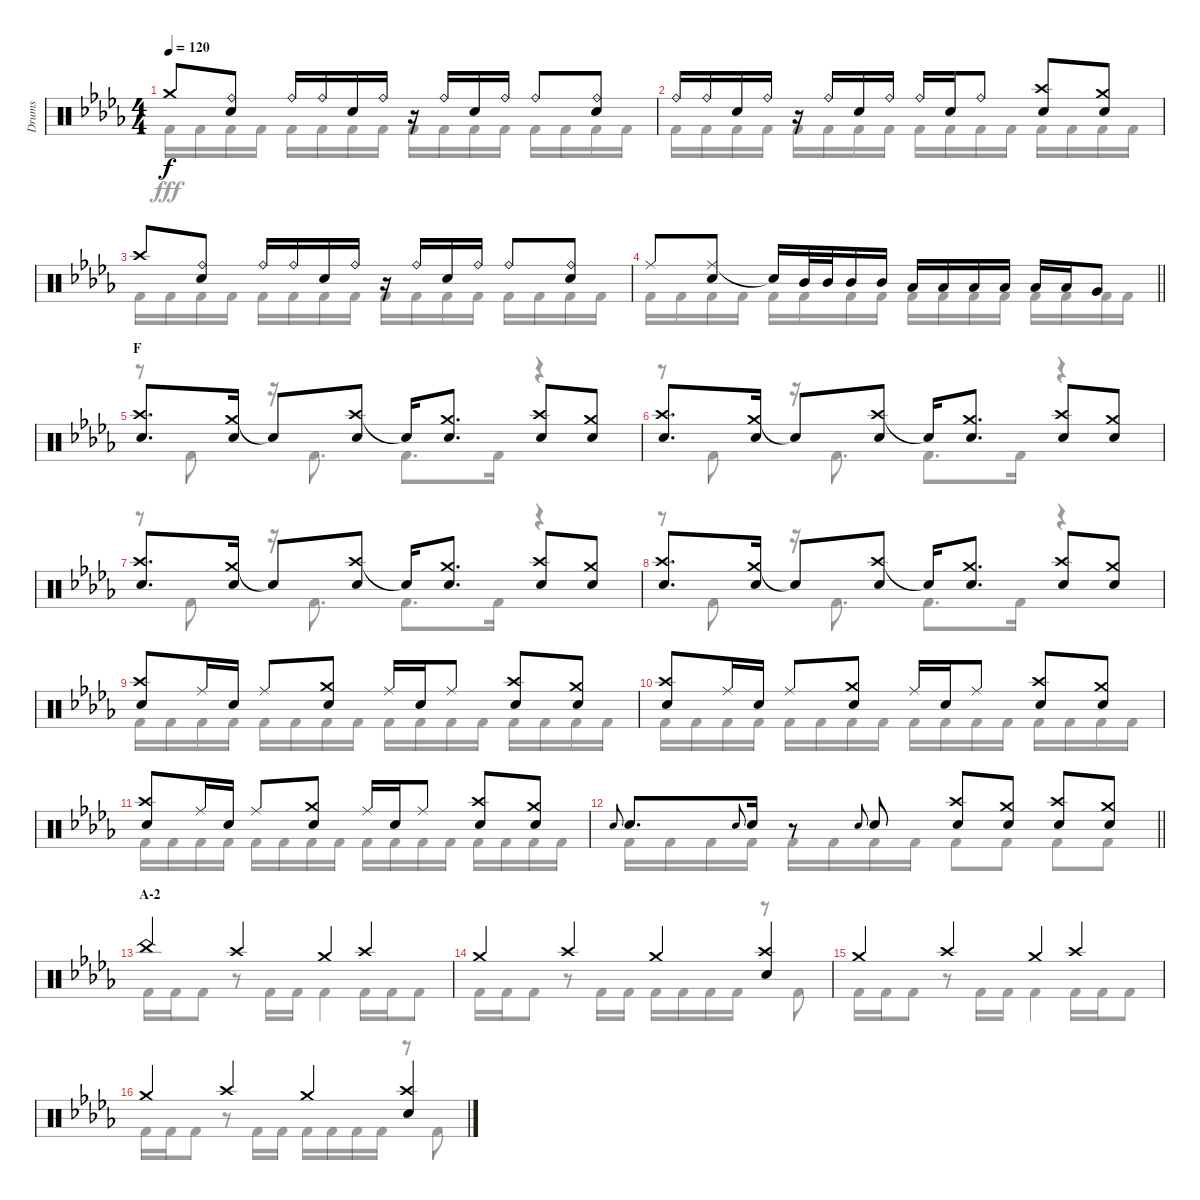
\track ("Drums" "Drums") {instrument percussion}
\staff {score}
\articulation defaults
\voice
\ts (4 4)
\tempo 120
\clef neutral
\ks db "Crash medium (hit)".8{dy f}
("Ride (bell)" "Snare (hit) 2").8 "Ride (bell)".16 "Ride (bell)".16 "Snare (hit) 2".16 "Ride (bell)".16 r.16 "Ride (bell)".16 "Snare (hit) 2".16 "Ride (bell)".16 "Ride (bell)".8 ("Ride (bell)" "Snare (hit) 2").8 |
"Ride (bell)".16 "Ride (bell)".16 "Snare (hit) 2".16 "Ride (bell)".16 r.16 "Ride (bell)".16 "Snare (hit) 2".16 "Ride (bell)".16 "Ride (bell)".16 "Snare (hit) 2".16 "Ride (bell)".8 ("Crash high (hit)" "Snare (hit) 2").8 ("Crash medium (hit)" "Snare (hit) 2").8 |
"Crash high (hit)".8 ("Ride (bell)" "Snare (hit) 2").8 "Ride (bell)".16 "Ride (bell)".16 "Snare (hit) 2".16 "Ride (bell)".16 r.16 "Ride (bell)".16 "Snare (hit) 2".16 "Ride (bell)".16 "Ride (bell)".8 ("Ride (bell)" "Snare (hit) 2").8 |
\barLineRight lightlight "Ride (middle)".8
("Ride (middle)" "Snare (hit) 2").8 "Snare (hit)"{t}.16 "Mid Tom (hit)".32 "Mid Tom (hit)".32 "Mid Tom (hit)".16 "Mid Tom (hit)".16 "Low Tom (hit)".16 "Low Tom (hit)".16 "Low Tom (hit)".16 "Low Tom (hit)".16 "Low Tom (hit)".16 "Low Tom (hit)".16 "Very Low Tom (hit)".8 |
\section ("" "F")
("Crash high (hit)" "Snare (hit) 2").8{d} ("Crash medium (hit)" "Snare (hit) 2").16 "Snare (hit)"{t}.8 ("Crash high (hit)" "Snare (hit) 2").8 "Snare (hit)"{t}.16 ("Crash medium (hit)" "Snare (hit) 2").8{d} ("Crash high (hit)" "Snare (hit) 2").8 ("Crash medium (hit)" "Snare (hit) 2").8 |
("Crash high (hit)" "Snare (hit) 2").8{d} ("Crash medium (hit)" "Snare (hit) 2").16 "Snare (hit)"{t}.8 ("Crash high (hit)" "Snare (hit) 2").8 "Snare (hit)"{t}.16 ("Crash medium (hit)" "Snare (hit) 2").8{d} ("Crash high (hit)" "Snare (hit) 2").8 ("Crash medium (hit)" "Snare (hit) 2").8 |
("Crash high (hit)" "Snare (hit) 2").8{d} ("Crash medium (hit)" "Snare (hit) 2").16 "Snare (hit)"{t}.8 ("Crash high (hit)" "Snare (hit) 2").8 "Snare (hit)"{t}.16 ("Crash medium (hit)" "Snare (hit) 2").8{d} ("Crash high (hit)" "Snare (hit) 2").8 ("Crash medium (hit)" "Snare (hit) 2").8 |
("Crash high (hit)" "Snare (hit) 2").8{d} ("Crash medium (hit)" "Snare (hit) 2").16 "Snare (hit)"{t}.8 ("Crash high (hit)" "Snare (hit) 2").8 "Snare (hit)"{t}.16 ("Crash medium (hit)" "Snare (hit) 2").8{d} ("Crash high (hit)" "Snare (hit) 2").8 ("Crash medium (hit)" "Snare (hit) 2").8 |
("Crash high (hit)" "Snare (hit) 2").8 "Ride (middle)".16 "Snare (hit) 2".16 "Ride (middle)".8 ("Crash medium (hit)" "Snare (hit) 2").8 "Ride (middle)".16 "Snare (hit) 2".16 "Ride (middle)".8 ("Crash high (hit)" "Snare (hit) 2").8 ("Crash medium (hit)" "Snare (hit) 2").8 |
("Crash high (hit)" "Snare (hit) 2").8 "Ride (middle)".16 "Snare (hit) 2".16 "Ride (middle)".8 ("Crash medium (hit)" "Snare (hit) 2").8 "Ride (middle)".16 "Snare (hit) 2".16 "Ride (middle)".8 ("Crash high (hit)" "Snare (hit) 2").8 ("Crash medium (hit)" "Snare (hit) 2").8 |
("Crash high (hit)" "Snare (hit) 2").8 "Ride (middle)".16 "Snare (hit) 2".16 "Ride (middle)".8 ("Crash medium (hit)" "Snare (hit) 2").8 "Ride (middle)".16 "Snare (hit) 2".16 "Ride (middle)".8 ("Crash high (hit)" "Snare (hit) 2").8 ("Crash medium (hit)" "Snare (hit) 2").8 |
\barLineRight lightlight "Snare (hit) 2".8{gr onbeat} "Snare (hit) 2".8{d} "Snare (hit) 2".8{gr onbeat} "Snare (hit) 2".16
r.8 "Snare (hit) 2".8{gr onbeat} "Snare (hit) 2".8 ("Crash high (hit)" "Snare (hit) 2").8 ("Crash medium (hit)" "Snare (hit) 2").8 ("Crash high (hit)" "Snare (hit) 2").8 ("Crash medium (hit)" "Snare (hit) 2").8 |
\section ("" "A-2")
"China (hit)".4 "Crash high (hit)".4 "Crash medium (hit)".4 "Crash high (hit)".4 |
"Crash medium (hit)".4 "Crash high (hit)".4 "Crash medium (hit)".4 ("Crash high (hit)" "Snare (hit) 2").4 |
"Crash medium (hit)".4 "Crash high (hit)".4 "Crash medium (hit)".4 "Crash high (hit)".4 |
"Crash medium (hit)".4 "Crash high (hit)".4 "Crash medium (hit)".4 ("Crash high (hit)" "Snare (hit) 2").4
\voice
\clef neutral
\ottava regular
\simile none
\ks db "Kick (hit) 2".16{dy fff} "Kick (hit) 2".16 "Kick (hit) 2".16 "Kick (hit) 2".16 "Kick (hit) 2".16 "Kick (hit) 2".16 "Kick (hit) 2".16 "Kick (hit) 2".16 "Kick (hit) 2".16 "Kick (hit) 2".16 "Kick (hit) 2".16 "Kick (hit) 2".16 "Kick (hit) 2".16 "Kick (hit) 2".16 "Kick (hit) 2".16 "Kick (hit) 2".16
|
"Kick (hit) 2".16 "Kick (hit) 2".16 "Kick (hit) 2".16 "Kick (hit) 2".16 "Kick (hit) 2".16 "Kick (hit) 2".16 "Kick (hit) 2".16 "Kick (hit) 2".16 "Kick (hit) 2".16 "Kick (hit) 2".16 "Kick (hit) 2".16 "Kick (hit) 2".16 "Kick (hit) 2".16 "Kick (hit) 2".16 "Kick (hit) 2".16 "Kick (hit) 2".16 |
"Kick (hit) 2".16 "Kick (hit) 2".16 "Kick (hit) 2".16 "Kick (hit) 2".16 "Kick (hit) 2".16 "Kick (hit) 2".16 "Kick (hit) 2".16 "Kick (hit) 2".16 "Kick (hit) 2".16 "Kick (hit) 2".16 "Kick (hit) 2".16 "Kick (hit) 2".16 "Kick (hit) 2".16 "Kick (hit) 2".16 "Kick (hit) 2".16 "Kick (hit) 2".16 |
\barLineRight lightlight "Kick (hit) 2".16 "Kick (hit) 2".16 "Kick (hit) 2".16 "Kick (hit) 2".16 "Kick (hit) 2".16 "Kick (hit) 2".16 "Kick (hit) 2".16 "Kick (hit) 2".16 "Kick (hit) 2".16 "Kick (hit) 2".16 "Kick (hit) 2".16 "Kick (hit) 2".16 "Kick (hit) 2".16 "Kick (hit) 2".16 "Kick (hit) 2".16 "Kick (hit) 2".16
|
r.8 "Kick (hit) 2".8 r.16 "Kick (hit) 2".8{d} "Kick (hit) 2".8{d} "Kick (hit) 2".16 r.4 |
r.8 "Kick (hit) 2".8 r.16 "Kick (hit) 2".8{d} "Kick (hit) 2".8{d} "Kick (hit) 2".16 r.4 |
r.8 "Kick (hit) 2".8 r.16 "Kick (hit) 2".8{d} "Kick (hit) 2".8{d} "Kick (hit) 2".16 r.4 |
r.8 "Kick (hit) 2".8 r.16 "Kick (hit) 2".8{d} "Kick (hit) 2".8{d} "Kick (hit) 2".16 r.4 |
"Kick (hit) 2".16 "Kick (hit) 2".16 "Kick (hit) 2".16 "Kick (hit) 2".16 "Kick (hit) 2".16 "Kick (hit) 2".16 "Kick (hit) 2".16 "Kick (hit) 2".16 "Kick (hit) 2".16 "Kick (hit) 2".16 "Kick (hit) 2".16 "Kick (hit) 2".16 "Kick (hit) 2".16 "Kick (hit) 2".16 "Kick (hit) 2".16 "Kick (hit) 2".16 |
"Kick (hit) 2".16 "Kick (hit) 2".16 "Kick (hit) 2".16 "Kick (hit) 2".16 "Kick (hit) 2".16 "Kick (hit) 2".16 "Kick (hit) 2".16 "Kick (hit) 2".16 "Kick (hit) 2".16 "Kick (hit) 2".16 "Kick (hit) 2".16 "Kick (hit) 2".16 "Kick (hit) 2".16 "Kick (hit) 2".16 "Kick (hit) 2".16 "Kick (hit) 2".16 |
"Kick (hit) 2".16 "Kick (hit) 2".16 "Kick (hit) 2".16 "Kick (hit) 2".16 "Kick (hit) 2".16 "Kick (hit) 2".16 "Kick (hit) 2".16 "Kick (hit) 2".16 "Kick (hit) 2".16 "Kick (hit) 2".16 "Kick (hit) 2".16 "Kick (hit) 2".16 "Kick (hit) 2".16 "Kick (hit) 2".16 "Kick (hit) 2".16 "Kick (hit) 2".16 |
\barLineRight lightlight "Kick (hit) 2".16 "Kick (hit) 2".16 "Kick (hit) 2".16 "Kick (hit) 2".16 "Kick (hit) 2".16 "Kick (hit) 2".16 "Kick (hit) 2".16 "Kick (hit) 2".16 "Kick (hit) 2".8 "Kick (hit) 2".8 "Kick (hit) 2".8 "Kick (hit) 2".8
|
"Kick (hit) 2".16 "Kick (hit) 2".16 "Kick (hit) 2".8 r.8 "Kick (hit) 2".16 "Kick (hit) 2".16 "Kick (hit) 2".4 "Kick (hit) 2".16 "Kick (hit) 2".16 "Kick (hit) 2".8 |
"Kick (hit) 2".16 "Kick (hit) 2".16 "Kick (hit) 2".8 r.8 "Kick (hit) 2".16 "Kick (hit) 2".16 "Kick (hit) 2".16 "Kick (hit) 2".16 "Kick (hit) 2".16 "Kick (hit) 2".16 r.8 "Kick (hit) 2".8 |
"Kick (hit) 2".16 "Kick (hit) 2".16 "Kick (hit) 2".8 r.8 "Kick (hit) 2".16 "Kick (hit) 2".16 "Kick (hit) 2".4 "Kick (hit) 2".16 "Kick (hit) 2".16 "Kick (hit) 2".8 |
"Kick (hit) 2".16 "Kick (hit) 2".16 "Kick (hit) 2".8 r.8 "Kick (hit) 2".16 "Kick (hit) 2".16 "Kick (hit) 2".16 "Kick (hit) 2".16 "Kick (hit) 2".16 "Kick (hit) 2".16 r.8 "Kick (hit) 2".8
